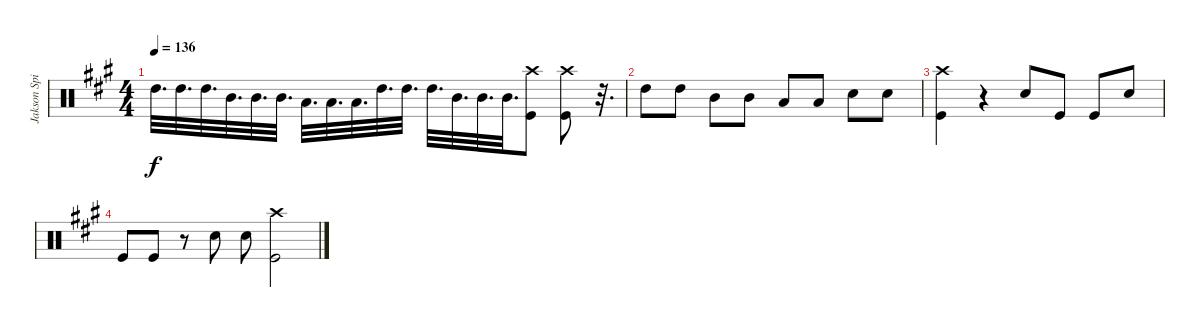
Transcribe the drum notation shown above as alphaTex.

\track ("Jakson Spires Drums" "Jakson Spi") {instrument percussion}
\staff {score}
\articulation defaults
\ts (4 4)
\tempo 136
\clef neutral
\ks a "High Tom (hit)".32{d dy f} "High Tom (hit)".32{d} "High Tom (hit)".32{d} "Mid Tom (hit)".32{d} "Mid Tom (hit)".32{d} "Mid Tom (hit)".32{d} "Low Tom (hit)".32{d} "Low Tom (hit)".32{d} "Low Tom (hit)".32{d} "High Tom (hit)".32{d} "High Tom (hit)".32{d} "High Tom (hit)".32{d} "Mid Tom (hit)".32{d} "Mid Tom (hit)".32{d} "Mid Tom (hit)".32{d}
("Crash high (hit)" "Kick (hit)").8 ("Crash high (hit)" "Kick (hit)").8 r.32{d} |
"High Tom (hit)".8 "High Tom (hit)".8 "Mid Tom (hit)".8 "Mid Tom (hit)".8 "Low Tom (hit)".8 "Low Tom (hit)".8 "Snare (hit) 2".8 "Snare (hit) 2".8 |
("Crash high (hit)" "Kick (hit)").4 r.4 "Snare (hit) 2".8 "Kick (hit)".8 "Kick (hit)".8 "Snare (hit) 2".8 |
"Kick (hit)".8 "Kick (hit)".8 r.8 "Snare (hit) 2".8 "Snare (hit) 2".8 ("Crash high (hit)" "Kick (hit)").2
